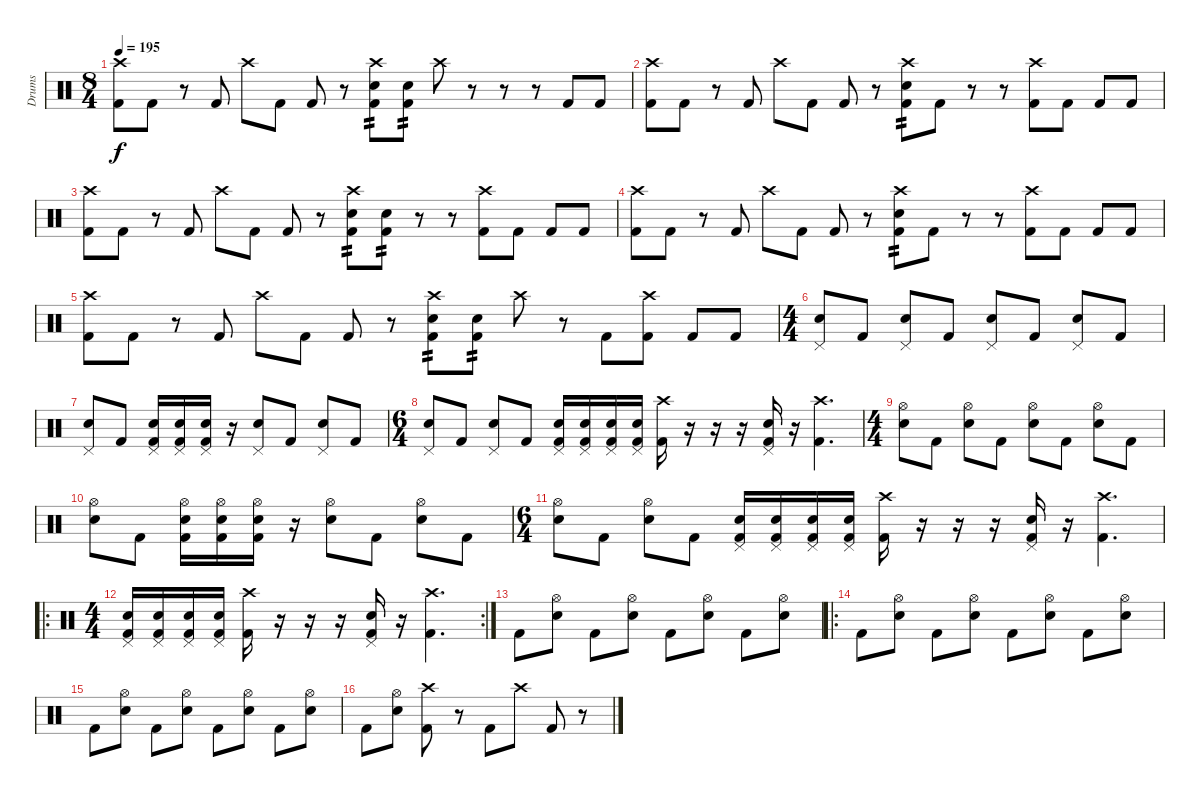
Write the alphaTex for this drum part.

\track ("Drums" "Drums") {instrument percussion}
\staff
\articulation defaults
\ts (8 4)
\tempo 195
\clef neutral
\ks c
("Crash high (hit)" "Kick (hit) 2").8{dy f} "Kick (hit) 2".8 r.8 "Kick (hit) 2".8 "Crash high (hit)".8 "Kick (hit) 2".8 "Kick (hit) 2".8 r.8 ("Crash high (hit)" "Electric Snare (hit)" "Kick (hit) 2").8{tp 2} ("Electric Snare (hit)" "Kick (hit) 2").8{tp 2} "Crash high (hit)".8 r.8 r.8 r.8 "Kick (hit) 2".8 "Kick (hit) 2".8 |
("Crash high (hit)" "Kick (hit) 2").8 "Kick (hit) 2".8 r.8 "Kick (hit) 2".8 "Crash high (hit)".8 "Kick (hit) 2".8 "Kick (hit) 2".8 r.8 ("Crash high (hit)" "Electric Snare (hit)" "Kick (hit) 2").8{tp 2} "Kick (hit) 2".8 r.8 r.8 ("Crash high (hit)" "Kick (hit) 2").8 "Kick (hit) 2".8 "Kick (hit) 2".8 "Kick (hit) 2".8 |
("Crash high (hit)" "Kick (hit) 2").8 "Kick (hit) 2".8 r.8 "Kick (hit) 2".8 "Crash high (hit)".8 "Kick (hit) 2".8 "Kick (hit) 2".8 r.8 ("Crash high (hit)" "Electric Snare (hit)" "Kick (hit) 2").8{tp 2} ("Electric Snare (hit)" "Kick (hit) 2").8{tp 2} r.8 r.8 ("Crash high (hit)" "Kick (hit) 2").8 "Kick (hit) 2".8 "Kick (hit) 2".8 "Kick (hit) 2".8 |
("Crash high (hit)" "Kick (hit) 2").8 "Kick (hit) 2".8 r.8 "Kick (hit) 2".8 "Crash high (hit)".8 "Kick (hit) 2".8 "Kick (hit) 2".8 r.8 ("Crash high (hit)" "Electric Snare (hit)" "Kick (hit) 2").8{tp 2} "Kick (hit) 2".8 r.8 r.8 ("Crash high (hit)" "Kick (hit) 2").8 "Kick (hit) 2".8 "Kick (hit) 2".8 "Kick (hit) 2".8 |
("Crash high (hit)" "Kick (hit) 2").8 "Kick (hit) 2".8 r.8 "Kick (hit) 2".8 "Crash high (hit)".8 "Kick (hit) 2".8 "Kick (hit) 2".8 r.8 ("Crash high (hit)" "Electric Snare (hit)" "Kick (hit) 2").8{tp 2} ("Electric Snare (hit)" "Kick (hit) 2").8{tp 2} "Crash high (hit)".8 r.8 "Kick (hit) 2".8 ("Crash high (hit)" "Kick (hit) 2").8 "Kick (hit) 2".8 "Kick (hit) 2".8 |
\ts (4 4)
("Pedal Hi-Hat (hit)" "Electric Snare (hit)").8 "Kick (hit) 2".8 ("Pedal Hi-Hat (hit)" "Electric Snare (hit)").8 "Kick (hit) 2".8 ("Pedal Hi-Hat (hit)" "Electric Snare (hit)").8 "Kick (hit) 2".8 ("Pedal Hi-Hat (hit)" "Electric Snare (hit)").8 "Kick (hit) 2".8 |
("Pedal Hi-Hat (hit)" "Electric Snare (hit)").8 "Kick (hit) 2".8 ("Pedal Hi-Hat (hit)" "Electric Snare (hit)" "Kick (hit) 2").16 ("Pedal Hi-Hat (hit)" "Electric Snare (hit)" "Kick (hit) 2").16 ("Pedal Hi-Hat (hit)" "Electric Snare (hit)" "Kick (hit) 2").16 r.16 ("Pedal Hi-Hat (hit)" "Electric Snare (hit)").8 "Kick (hit) 2".8 ("Pedal Hi-Hat (hit)" "Electric Snare (hit)").8 "Kick (hit) 2".8 |
\ts (6 4)
("Pedal Hi-Hat (hit)" "Electric Snare (hit)").8 "Kick (hit) 2".8 ("Pedal Hi-Hat (hit)" "Electric Snare (hit)").8 "Kick (hit) 2".8 ("Pedal Hi-Hat (hit)" "Electric Snare (hit)" "Kick (hit) 2").16 ("Pedal Hi-Hat (hit)" "Electric Snare (hit)" "Kick (hit) 2").16 ("Pedal Hi-Hat (hit)" "Electric Snare (hit)" "Kick (hit) 2").16 ("Pedal Hi-Hat (hit)" "Electric Snare (hit)" "Kick (hit) 2").16 ("Crash high (hit)" "Kick (hit) 2").16 r.16 r.16 r.16 ("Pedal Hi-Hat (hit)" "Electric Snare (hit)" "Kick (hit) 2").16 r.16 ("Crash high (hit)" "Kick (hit) 2").4{d} |
\ts (4 4)
("Hi-Hat (open)" "Electric Snare (hit)").8 "Kick (hit) 2".8 ("Hi-Hat (open)" "Electric Snare (hit)").8 "Kick (hit) 2".8 ("Hi-Hat (open)" "Electric Snare (hit)").8 "Kick (hit) 2".8 ("Hi-Hat (open)" "Electric Snare (hit)").8 "Kick (hit) 2".8 |
("Hi-Hat (open)" "Electric Snare (hit)").8 "Kick (hit) 2".8 ("Hi-Hat (open)" "Electric Snare (hit)" "Kick (hit) 2").16 ("Hi-Hat (open)" "Electric Snare (hit)" "Kick (hit) 2").16 ("Hi-Hat (open)" "Electric Snare (hit)" "Kick (hit) 2").16 r.16 ("Hi-Hat (open)" "Electric Snare (hit)").8 "Kick (hit) 2".8 ("Hi-Hat (open)" "Electric Snare (hit)").8 "Kick (hit) 2".8 |
\ts (6 4)
("Hi-Hat (open)" "Electric Snare (hit)").8 "Kick (hit) 2".8 ("Hi-Hat (open)" "Electric Snare (hit)").8 "Kick (hit) 2".8 ("Pedal Hi-Hat (hit)" "Electric Snare (hit)" "Kick (hit) 2").16 ("Pedal Hi-Hat (hit)" "Electric Snare (hit)" "Kick (hit) 2").16 ("Pedal Hi-Hat (hit)" "Electric Snare (hit)" "Kick (hit) 2").16 ("Pedal Hi-Hat (hit)" "Electric Snare (hit)" "Kick (hit) 2").16 ("Crash high (hit)" "Kick (hit) 2").16 r.16 r.16 r.16 ("Pedal Hi-Hat (hit)" "Electric Snare (hit)" "Kick (hit) 2").16 r.16 ("Crash high (hit)" "Kick (hit) 2").4{d} |
\ro
\rc 2
\ts (4 4)
("Pedal Hi-Hat (hit)" "Electric Snare (hit)" "Kick (hit) 2").16 ("Pedal Hi-Hat (hit)" "Electric Snare (hit)" "Kick (hit) 2").16 ("Pedal Hi-Hat (hit)" "Electric Snare (hit)" "Kick (hit) 2").16 ("Pedal Hi-Hat (hit)" "Electric Snare (hit)" "Kick (hit) 2").16 ("Crash high (hit)" "Kick (hit) 2").16 r.16 r.16 r.16 ("Pedal Hi-Hat (hit)" "Electric Snare (hit)" "Kick (hit) 2").16 r.16 ("Crash high (hit)" "Kick (hit) 2").4{d} |
"Kick (hit) 2".8 ("Hi-Hat (open)" "Electric Snare (hit)").8 "Kick (hit) 2".8 ("Hi-Hat (open)" "Electric Snare (hit)").8 "Kick (hit) 2".8 ("Hi-Hat (open)" "Electric Snare (hit)").8 "Kick (hit) 2".8 ("Hi-Hat (open)" "Electric Snare (hit)").8 |
\ro "Kick (hit) 2".8
("Hi-Hat (open)" "Electric Snare (hit)").8 "Kick (hit) 2".8 ("Hi-Hat (open)" "Electric Snare (hit)").8 "Kick (hit) 2".8 ("Hi-Hat (open)" "Electric Snare (hit)").8 "Kick (hit) 2".8 ("Hi-Hat (open)" "Electric Snare (hit)").8 |
"Kick (hit) 2".8 ("Hi-Hat (open)" "Electric Snare (hit)").8 "Kick (hit) 2".8 ("Hi-Hat (open)" "Electric Snare (hit)").8 "Kick (hit) 2".8 ("Hi-Hat (open)" "Electric Snare (hit)").8 "Kick (hit) 2".8 ("Hi-Hat (open)" "Electric Snare (hit)").8 |
"Kick (hit) 2".8 ("Hi-Hat (open)" "Electric Snare (hit)").8 ("Crash high (hit)" "Kick (hit) 2").8 r.8 "Kick (hit) 2".8 "Crash high (hit)".8 "Kick (hit) 2".8 r.8
